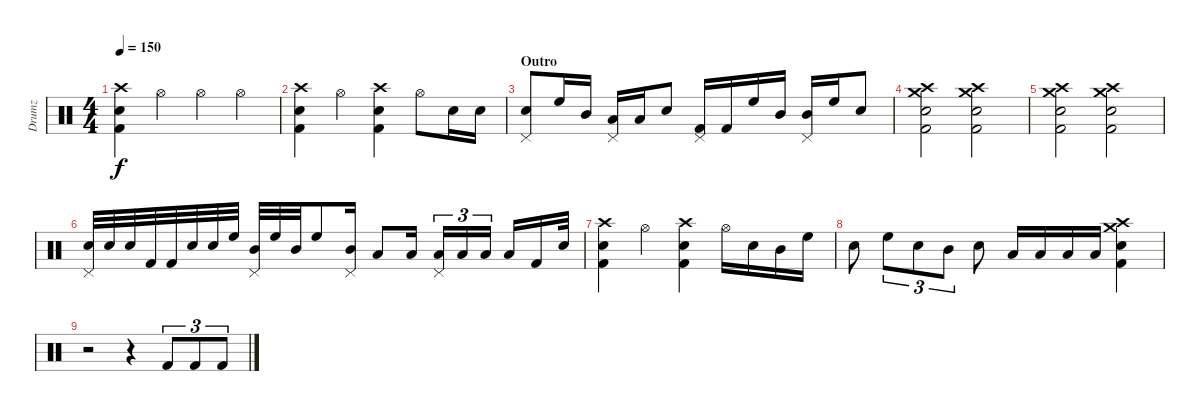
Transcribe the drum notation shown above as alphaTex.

\track ("Drumz" "Drumz") {instrument percussion}
\staff {score}
\articulation defaults
\ts (4 4)
\tempo 150
\clef neutral
\ks c
("Crash high (hit)" "Snare (hit) 2" "Kick (hit) 2").4{dy f} "Hi-Hat (open)".4 "Hi-Hat (open)".4 "Hi-Hat (open)".4 |
("Crash high (hit)" "Snare (hit) 2" "Kick (hit) 2").4 "Hi-Hat (open)".4 ("Crash high (hit)" "Snare (hit) 2" "Kick (hit) 2").4 "Hi-Hat (open)".8 "Snare (hit) 2".16 "Snare (hit) 2".16 |
\section ("" "Outro")
("Pedal Hi-Hat (hit)" "Snare (hit) 2").8 "High Floor Tom (hit)".16 "Mid Tom (hit)".16 ("Pedal Hi-Hat (hit)" "Low Tom (hit)").16 "Low Floor Tom (hit)".16 "Snare (hit) 2".8 ("Pedal Hi-Hat (hit)" "Kick (hit) 2").16 "Kick (hit) 2".16 "High Floor Tom (hit)".16 "Mid Tom (hit)".16 ("Pedal Hi-Hat (hit)" "Mid Tom (hit)").16 "High Floor Tom (hit)".16 "Snare (hit) 2".8 |
("Crash medium (hit)" "Crash high (hit)" "Snare (hit) 2" "Kick (hit) 2").2 ("Crash medium (hit)" "Crash high (hit)" "Snare (hit) 2" "Kick (hit) 2").2 |
("Crash medium (hit)" "Crash high (hit)" "Snare (hit) 2" "Kick (hit) 2").2 ("Crash medium (hit)" "Crash high (hit)" "Snare (hit) 2" "Kick (hit) 2").2 |
("Pedal Hi-Hat (hit)" "Snare (hit) 2").32 "Snare (hit) 2".32 "Snare (hit) 2".32 "Kick (hit) 2".32 "Kick (hit) 2".32 "Snare (hit) 2".32 "Snare (hit) 2".32 "High Floor Tom (hit)".32 ("Pedal Hi-Hat (hit)" "Mid Tom (hit)").32 "High Floor Tom (hit)".32 "Mid Tom (hit)".32 "High Floor Tom (hit)".8 ("Pedal Hi-Hat (hit)" "Mid Tom (hit)").16 "Low Tom (hit)".8 "Low Tom (hit)".16 ("Pedal Hi-Hat (hit)" "Low Tom (hit)").16{tu (3 2)} "Low Floor Tom (hit)".16{tu (3 2)} "Low Floor Tom (hit)".16{tu (3 2)} "Low Floor Tom (hit)".16 "Kick (hit) 2".16 "Snare (hit) 2".32 |
("Crash high (hit)" "Snare (hit) 2" "Kick (hit) 2").4 "Hi-Hat (open)".4 ("Crash high (hit)" "Snare (hit) 2" "Kick (hit) 2").4 "Hi-Hat (open)".16 "Snare (hit) 2".16 "Mid Tom (hit)".16 "High Floor Tom (hit)".16 |
"Snare (hit) 2".8 "High Floor Tom (hit)".8{tu (3 2)} "Snare (hit) 2".8{tu (3 2)} "Mid Tom (hit)".8{tu (3 2)} "Snare (hit) 2".8 "Low Floor Tom (hit)".16 "Low Floor Tom (hit)".16 "Low Tom (hit)".16 "Low Floor Tom (hit)".16 ("Crash high (hit)" "Crash medium (hit)" "Snare (hit) 2" "Kick (hit) 2").4 |
r.2 r.4 "Kick (hit) 2".8{tu (3 2)} "Kick (hit) 2".8{tu (3 2)} "Kick (hit) 2".8{tu (3 2)}
